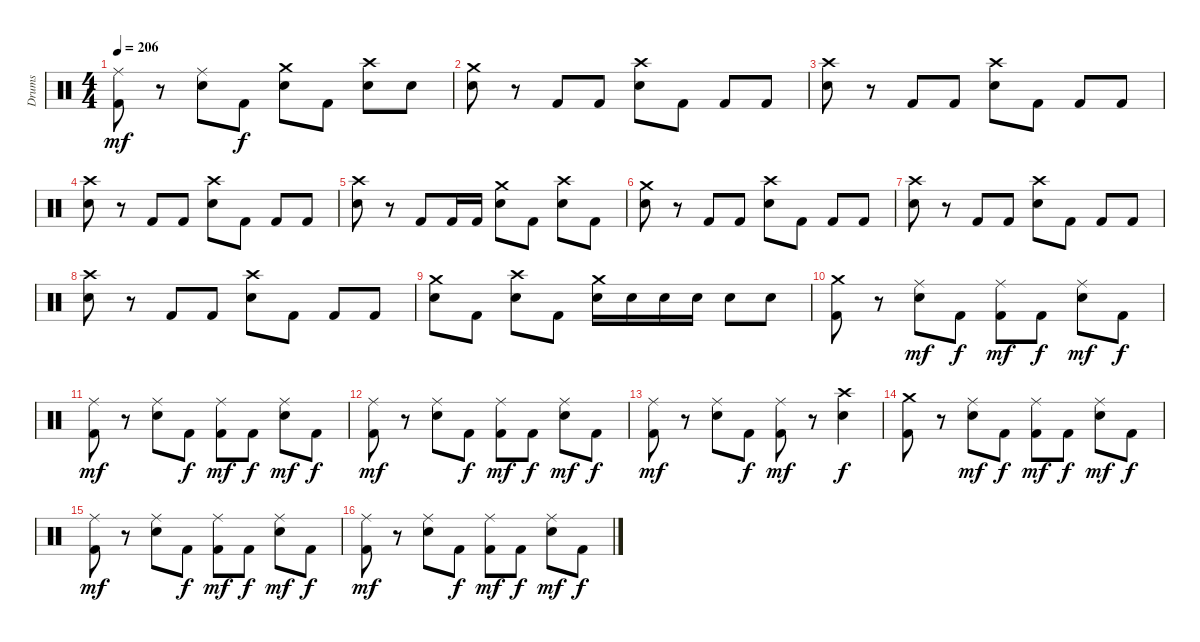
\track ("Drums" "Drums") {instrument percussion}
\staff {score}
\articulation defaults
\ts (4 4)
\tempo 206
\clef neutral
\ks c
("Ride (middle)" "Kick (hit) 2").8{dy mf} r.8 ("Ride (middle)" "Snare (hit) 2").8 "Kick (hit) 2".8{dy f} ("Crash medium (hit)" "Snare (hit) 2").8 "Kick (hit) 2".8 ("Crash high (hit)" "Snare (hit) 2").8 "Snare (hit) 2".8 |
("Crash medium (hit)" "Snare (hit) 2").8 r.8 "Kick (hit) 2".8 "Kick (hit) 2".8 ("Crash high (hit)" "Snare (hit) 2").8 "Kick (hit) 2".8 "Kick (hit) 2".8 "Kick (hit) 2".8 |
("Crash high (hit)" "Snare (hit) 2").8 r.8 "Kick (hit) 2".8 "Kick (hit) 2".8 ("Crash high (hit)" "Snare (hit) 2").8 "Kick (hit) 2".8 "Kick (hit) 2".8 "Kick (hit) 2".8 |
("Crash high (hit)" "Snare (hit) 2").8 r.8 "Kick (hit) 2".8 "Kick (hit) 2".8 ("Crash high (hit)" "Snare (hit) 2").8 "Kick (hit) 2".8 "Kick (hit) 2".8 "Kick (hit) 2".8 |
("Crash high (hit)" "Snare (hit) 2").8 r.8 "Kick (hit) 2".8 "Kick (hit) 2".16 "Kick (hit) 2".16 ("Crash medium (hit)" "Snare (hit) 2").8 "Kick (hit) 2".8 ("Crash high (hit)" "Snare (hit) 2").8 "Kick (hit) 2".8 |
("Crash medium (hit)" "Snare (hit) 2").8 r.8 "Kick (hit) 2".8 "Kick (hit) 2".8 ("Crash high (hit)" "Snare (hit) 2").8 "Kick (hit) 2".8 "Kick (hit) 2".8 "Kick (hit) 2".8 |
("Crash high (hit)" "Snare (hit) 2").8 r.8 "Kick (hit) 2".8 "Kick (hit) 2".8 ("Crash high (hit)" "Snare (hit) 2").8 "Kick (hit) 2".8 "Kick (hit) 2".8 "Kick (hit) 2".8 |
("Crash high (hit)" "Snare (hit) 2").8 r.8 "Kick (hit) 2".8 "Kick (hit) 2".8 ("Crash high (hit)" "Snare (hit) 2").8 "Kick (hit) 2".8 "Kick (hit) 2".8 "Kick (hit) 2".8 |
("Crash medium (hit)" "Snare (hit) 2").8 "Kick (hit) 2".8 ("Crash high (hit)" "Snare (hit) 2").8 "Kick (hit) 2".8 ("Crash medium (hit)" "Snare (hit) 2").16 "Snare (hit) 2".16 "Snare (hit) 2".16 "Snare (hit) 2".16 "Snare (hit) 2".8 "Snare (hit) 2".8 |
("Crash medium (hit)" "Kick (hit) 2").8 r.8 ("Ride (middle)" "Snare (hit) 2").8{dy mf} "Kick (hit) 2".8{dy f} ("Ride (middle)" "Kick (hit) 2").8{dy mf} "Kick (hit) 2".8{dy f} ("Ride (middle)" "Snare (hit) 2").8{dy mf} "Kick (hit) 2".8{dy f} |
("Ride (middle)" "Kick (hit) 2").8{dy mf} r.8 ("Ride (middle)" "Snare (hit) 2").8 "Kick (hit) 2".8{dy f} ("Ride (middle)" "Kick (hit) 2").8{dy mf} "Kick (hit) 2".8{dy f} ("Ride (middle)" "Snare (hit) 2").8{dy mf} "Kick (hit) 2".8{dy f} |
("Ride (middle)" "Kick (hit) 2").8{dy mf} r.8 ("Ride (middle)" "Snare (hit) 2").8 "Kick (hit) 2".8{dy f} ("Ride (middle)" "Kick (hit) 2").8{dy mf} "Kick (hit) 2".8{dy f} ("Ride (middle)" "Snare (hit) 2").8{dy mf} "Kick (hit) 2".8{dy f} |
("Ride (middle)" "Kick (hit) 2").8{dy mf} r.8 ("Ride (middle)" "Snare (hit) 2").8 "Kick (hit) 2".8{dy f} ("Ride (middle)" "Kick (hit) 2").8{dy mf} r.8 ("Crash high (hit)" "Snare (hit) 2").4{dy f} |
("Crash medium (hit)" "Kick (hit) 2").8 r.8 ("Ride (middle)" "Snare (hit) 2").8{dy mf} "Kick (hit) 2".8{dy f} ("Ride (middle)" "Kick (hit) 2").8{dy mf} "Kick (hit) 2".8{dy f} ("Ride (middle)" "Snare (hit) 2").8{dy mf} "Kick (hit) 2".8{dy f} |
("Ride (middle)" "Kick (hit) 2").8{dy mf} r.8 ("Ride (middle)" "Snare (hit) 2").8 "Kick (hit) 2".8{dy f} ("Ride (middle)" "Kick (hit) 2").8{dy mf} "Kick (hit) 2".8{dy f} ("Ride (middle)" "Snare (hit) 2").8{dy mf} "Kick (hit) 2".8{dy f} |
("Ride (middle)" "Kick (hit) 2").8{dy mf} r.8 ("Ride (middle)" "Snare (hit) 2").8 "Kick (hit) 2".8{dy f} ("Ride (middle)" "Kick (hit) 2").8{dy mf} "Kick (hit) 2".8{dy f} ("Ride (middle)" "Snare (hit) 2").8{dy mf} "Kick (hit) 2".8{dy f}
